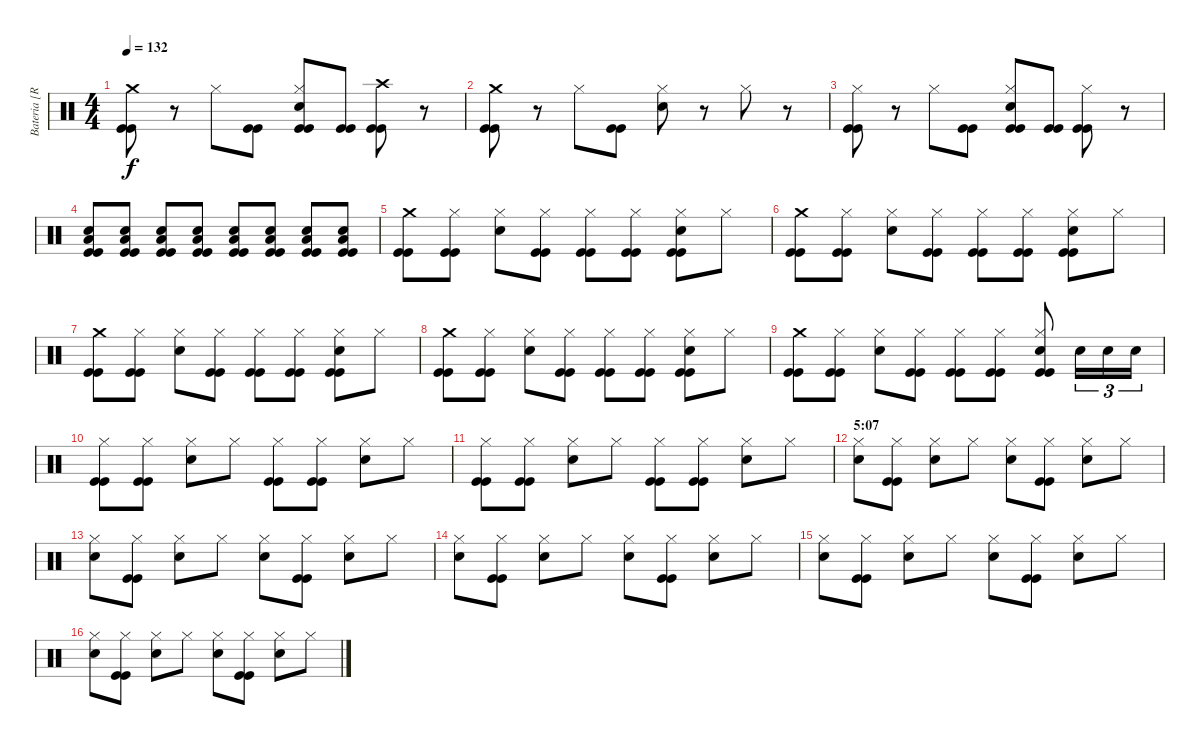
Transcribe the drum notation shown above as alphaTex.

\track ("Bateria [Ricardo Confessori]" "Bateria [R") {instrument percussion}
\staff {score}
\articulation defaults
\ts (4 4)
\tempo 132
\clef neutral
\ks c
("Crash medium (hit)" "Kick (hit)" "Kick (hit)").8{dy f} r.8 "Hi-Hat (closed)".8 ("Kick (hit)" "Kick (hit)").8 ("Hi-Hat (closed)" "Electric Snare (hit)" "Kick (hit)" "Kick (hit)").8 ("Kick (hit)" "Kick (hit)").8 ("Crash high (hit)" "Kick (hit)" "Kick (hit)").8 r.8 |
("Crash medium (hit)" "Kick (hit)" "Kick (hit)").8 r.8 "Hi-Hat (closed)".8 ("Kick (hit)" "Kick (hit)").8 ("Hi-Hat (closed)" "Electric Snare (hit)").8 r.8 "Hi-Hat (closed)".8 r.8 |
("Hi-Hat (closed)" "Kick (hit)" "Kick (hit)").8 r.8 "Hi-Hat (closed)".8 ("Kick (hit)" "Kick (hit)").8 ("Hi-Hat (closed)" "Electric Snare (hit)" "Kick (hit)" "Kick (hit)").8 ("Kick (hit)" "Kick (hit)").8 ("Hi-Hat (closed)" "Kick (hit)" "Kick (hit)").8 r.8 |
("Electric Snare (hit)" "Low Floor Tom (hit)" "Kick (hit)" "Kick (hit)").8 ("Electric Snare (hit)" "Low Floor Tom (hit)" "Kick (hit)" "Kick (hit)").8 ("Electric Snare (hit)" "Low Floor Tom (hit)" "Kick (hit)" "Kick (hit)").8 ("Electric Snare (hit)" "Low Floor Tom (hit)" "Kick (hit)" "Kick (hit)").8 ("Electric Snare (hit)" "Low Floor Tom (hit)" "Kick (hit)" "Kick (hit)").8 ("Electric Snare (hit)" "Low Floor Tom (hit)" "Kick (hit)" "Kick (hit)").8 ("Electric Snare (hit)" "Low Floor Tom (hit)" "Kick (hit)" "Kick (hit)").8 ("Electric Snare (hit)" "Low Floor Tom (hit)" "Kick (hit)" "Kick (hit)").8 |
("Crash medium (hit)" "Kick (hit)" "Kick (hit)").8 ("Hi-Hat (closed)" "Kick (hit)" "Kick (hit)").8 ("Hi-Hat (closed)" "Electric Snare (hit)").8 ("Hi-Hat (closed)" "Kick (hit)" "Kick (hit)").8 ("Hi-Hat (closed)" "Kick (hit)" "Kick (hit)").8 ("Hi-Hat (closed)" "Kick (hit)" "Kick (hit)").8 ("Hi-Hat (closed)" "Electric Snare (hit)" "Kick (hit)" "Kick (hit)").8 "Hi-Hat (closed)".8 |
("Crash medium (hit)" "Kick (hit)" "Kick (hit)").8 ("Hi-Hat (closed)" "Kick (hit)" "Kick (hit)").8 ("Hi-Hat (closed)" "Electric Snare (hit)").8 ("Hi-Hat (closed)" "Kick (hit)" "Kick (hit)").8 ("Hi-Hat (closed)" "Kick (hit)" "Kick (hit)").8 ("Hi-Hat (closed)" "Kick (hit)" "Kick (hit)").8 ("Hi-Hat (closed)" "Electric Snare (hit)" "Kick (hit)" "Kick (hit)").8 "Hi-Hat (closed)".8 |
("Crash medium (hit)" "Kick (hit)" "Kick (hit)").8 ("Hi-Hat (closed)" "Kick (hit)" "Kick (hit)").8 ("Hi-Hat (closed)" "Electric Snare (hit)").8 ("Hi-Hat (closed)" "Kick (hit)" "Kick (hit)").8 ("Hi-Hat (closed)" "Kick (hit)" "Kick (hit)").8 ("Hi-Hat (closed)" "Kick (hit)" "Kick (hit)").8 ("Hi-Hat (closed)" "Electric Snare (hit)" "Kick (hit)" "Kick (hit)").8 "Hi-Hat (closed)".8 |
("Crash medium (hit)" "Kick (hit)" "Kick (hit)").8 ("Hi-Hat (closed)" "Kick (hit)" "Kick (hit)").8 ("Hi-Hat (closed)" "Electric Snare (hit)").8 ("Hi-Hat (closed)" "Kick (hit)" "Kick (hit)").8 ("Hi-Hat (closed)" "Kick (hit)" "Kick (hit)").8 ("Hi-Hat (closed)" "Kick (hit)" "Kick (hit)").8 ("Hi-Hat (closed)" "Electric Snare (hit)" "Kick (hit)" "Kick (hit)").8 "Hi-Hat (closed)".8 |
("Crash medium (hit)" "Kick (hit)" "Kick (hit)").8 ("Hi-Hat (closed)" "Kick (hit)" "Kick (hit)").8 ("Hi-Hat (closed)" "Electric Snare (hit)").8 ("Hi-Hat (closed)" "Kick (hit)" "Kick (hit)").8 ("Hi-Hat (closed)" "Kick (hit)" "Kick (hit)").8 ("Hi-Hat (closed)" "Kick (hit)" "Kick (hit)").8 ("Hi-Hat (closed)" "Electric Snare (hit)" "Kick (hit)" "Kick (hit)").8 "Electric Snare (hit)".16{tu (3 2)} "Electric Snare (hit)".16{tu (3 2)} "Electric Snare (hit)".16{tu (3 2)} |
("Hi-Hat (closed)" "Kick (hit)" "Kick (hit)").8 ("Hi-Hat (closed)" "Kick (hit)" "Kick (hit)").8 ("Hi-Hat (closed)" "Electric Snare (hit)").8 "Hi-Hat (closed)".8 ("Hi-Hat (closed)" "Kick (hit)" "Kick (hit)").8 ("Hi-Hat (closed)" "Kick (hit)" "Kick (hit)").8 ("Hi-Hat (closed)" "Electric Snare (hit)").8 "Hi-Hat (closed)".8 |
("Hi-Hat (closed)" "Kick (hit)" "Kick (hit)").8 ("Hi-Hat (closed)" "Kick (hit)" "Kick (hit)").8 ("Hi-Hat (closed)" "Electric Snare (hit)").8 "Hi-Hat (closed)".8 ("Hi-Hat (closed)" "Kick (hit)" "Kick (hit)").8 ("Hi-Hat (closed)" "Kick (hit)" "Kick (hit)").8 ("Hi-Hat (closed)" "Electric Snare (hit)").8 "Hi-Hat (closed)".8 |
\section ("" "5:07")
("Hi-Hat (closed)" "Electric Snare (hit)").8 ("Hi-Hat (closed)" "Kick (hit)" "Kick (hit)").8 ("Hi-Hat (closed)" "Electric Snare (hit)").8 "Hi-Hat (closed)".8 ("Hi-Hat (closed)" "Electric Snare (hit)").8 ("Hi-Hat (closed)" "Kick (hit)" "Kick (hit)").8 ("Hi-Hat (closed)" "Electric Snare (hit)").8 "Hi-Hat (closed)".8 |
("Hi-Hat (closed)" "Electric Snare (hit)").8 ("Hi-Hat (closed)" "Kick (hit)" "Kick (hit)").8 ("Hi-Hat (closed)" "Electric Snare (hit)").8 "Hi-Hat (closed)".8 ("Hi-Hat (closed)" "Electric Snare (hit)").8 ("Hi-Hat (closed)" "Kick (hit)" "Kick (hit)").8 ("Hi-Hat (closed)" "Electric Snare (hit)").8 "Hi-Hat (closed)".8 |
("Hi-Hat (closed)" "Electric Snare (hit)").8 ("Hi-Hat (closed)" "Kick (hit)" "Kick (hit)").8 ("Hi-Hat (closed)" "Electric Snare (hit)").8 "Hi-Hat (closed)".8 ("Hi-Hat (closed)" "Electric Snare (hit)").8 ("Hi-Hat (closed)" "Kick (hit)" "Kick (hit)").8 ("Hi-Hat (closed)" "Electric Snare (hit)").8 "Hi-Hat (closed)".8 |
("Hi-Hat (closed)" "Electric Snare (hit)").8 ("Hi-Hat (closed)" "Kick (hit)" "Kick (hit)").8 ("Hi-Hat (closed)" "Electric Snare (hit)").8 "Hi-Hat (closed)".8 ("Hi-Hat (closed)" "Electric Snare (hit)").8 ("Hi-Hat (closed)" "Kick (hit)" "Kick (hit)").8 ("Hi-Hat (closed)" "Electric Snare (hit)").8 "Hi-Hat (closed)".8 |
("Hi-Hat (closed)" "Electric Snare (hit)").8 ("Hi-Hat (closed)" "Kick (hit)" "Kick (hit)").8 ("Hi-Hat (closed)" "Electric Snare (hit)").8 "Hi-Hat (closed)".8 ("Hi-Hat (closed)" "Electric Snare (hit)").8 ("Hi-Hat (closed)" "Kick (hit)" "Kick (hit)").8 ("Hi-Hat (closed)" "Electric Snare (hit)").8 "Hi-Hat (closed)".8
